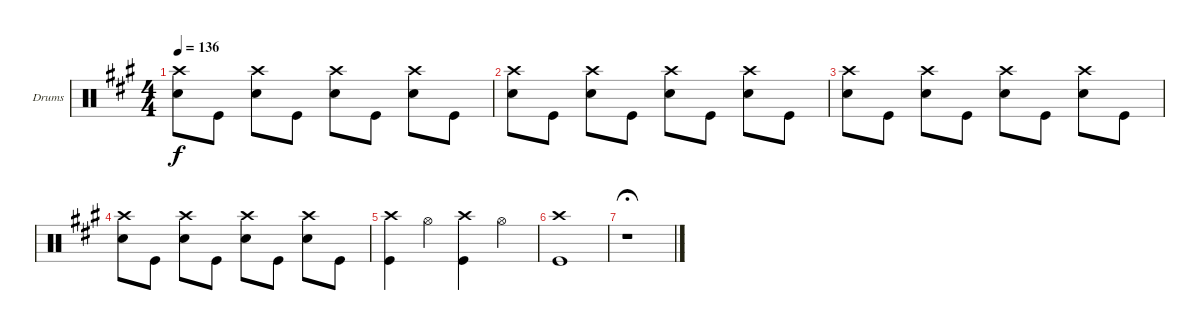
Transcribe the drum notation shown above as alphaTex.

\defaultSystemsLayout 4
\bracketExtendMode groupsimilarinstruments
\firstSystemTrackNameOrientation horizontal
\otherSystemsTrackNameOrientation horizontal
\track ("Drumkit" "Drums") {instrument percussion}
\staff {score}
\articulation defaults
\ts (4 4)
\tempo 136
\clef neutral
\scale
1.05801
\ks a
("Snare (hit) 2" "Crash high (hit)").8{dy f} "Kick (hit)".8 ("Snare (hit) 2" "Crash high (hit)").8 "Kick (hit)".8 ("Snare (hit) 2" "Crash high (hit)").8 "Kick (hit)".8 ("Snare (hit) 2" "Crash high (hit)").8 "Kick (hit)".8 |
\scale
0.941992 ("Snare (hit) 2" "Crash high (hit)").8 "Kick (hit)".8 ("Snare (hit) 2" "Crash high (hit)").8 "Kick (hit)".8 ("Snare (hit) 2" "Crash high (hit)").8 "Kick (hit)".8 ("Snare (hit) 2" "Crash high (hit)").8 "Kick (hit)".8 |
\scale
1.05801 ("Snare (hit) 2" "Crash high (hit)").8 "Kick (hit)".8 ("Snare (hit) 2" "Crash high (hit)").8 "Kick (hit)".8 ("Snare (hit) 2" "Crash high (hit)").8 "Kick (hit)".8 ("Snare (hit) 2" "Crash high (hit)").8 "Kick (hit)".8 |
\scale
0.941992 ("Snare (hit) 2" "Crash high (hit)").8 "Kick (hit)".8 ("Snare (hit) 2" "Crash high (hit)").8 "Kick (hit)".8 ("Snare (hit) 2" "Crash high (hit)").8 "Kick (hit)".8 ("Snare (hit) 2" "Crash high (hit)").8 "Kick (hit)".8 |
\scale
1.05801 ("Kick (hit)" "Crash high (hit)").4 "Hi-Hat (open)".4 ("Kick (hit)" "Crash high (hit)").4 "Hi-Hat (open)".4 |
\scale
0.941992 ("Kick (hit)" "Crash high (hit)").1 |
r.1{fermata (medium 0.5)}
